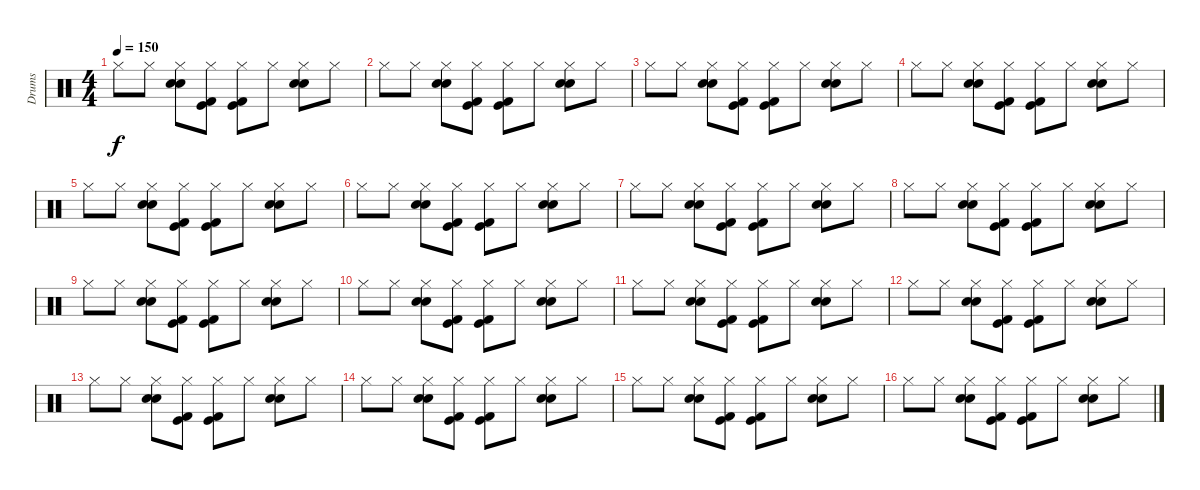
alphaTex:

\track ("Drums" "Drums") {instrument percussion}
\staff {score}
\articulation defaults
\ts (4 4)
\tempo 150
\clef neutral
\ks c "Hi-Hat (closed)".8{dy f} "Hi-Hat (closed)".8
("Hi-Hat (closed)" "Snare (hit) 2" "Electric Snare (hit)").8 ("Hi-Hat (closed)" "Kick (hit) 2" "Kick (hit)").8 ("Hi-Hat (closed)" "Kick (hit) 2" "Kick (hit)").8 "Hi-Hat (closed)".8 ("Hi-Hat (closed)" "Snare (hit) 2" "Electric Snare (hit)").8 "Hi-Hat (closed)".8 |
"Hi-Hat (closed)".8 "Hi-Hat (closed)".8 ("Hi-Hat (closed)" "Snare (hit) 2" "Electric Snare (hit)").8 ("Hi-Hat (closed)" "Kick (hit) 2" "Kick (hit)").8 ("Hi-Hat (closed)" "Kick (hit) 2" "Kick (hit)").8 "Hi-Hat (closed)".8 ("Hi-Hat (closed)" "Snare (hit) 2" "Electric Snare (hit)").8 "Hi-Hat (closed)".8 |
"Hi-Hat (closed)".8 "Hi-Hat (closed)".8 ("Hi-Hat (closed)" "Snare (hit) 2" "Electric Snare (hit)").8 ("Hi-Hat (closed)" "Kick (hit) 2" "Kick (hit)").8 ("Hi-Hat (closed)" "Kick (hit) 2" "Kick (hit)").8 "Hi-Hat (closed)".8 ("Hi-Hat (closed)" "Snare (hit) 2" "Electric Snare (hit)").8 "Hi-Hat (closed)".8 |
"Hi-Hat (closed)".8 "Hi-Hat (closed)".8 ("Hi-Hat (closed)" "Snare (hit) 2" "Electric Snare (hit)").8 ("Hi-Hat (closed)" "Kick (hit) 2" "Kick (hit)").8 ("Hi-Hat (closed)" "Kick (hit) 2" "Kick (hit)").8 "Hi-Hat (closed)".8 ("Hi-Hat (closed)" "Snare (hit) 2" "Electric Snare (hit)").8 "Hi-Hat (closed)".8 |
"Hi-Hat (closed)".8 "Hi-Hat (closed)".8 ("Hi-Hat (closed)" "Snare (hit) 2" "Electric Snare (hit)").8 ("Hi-Hat (closed)" "Kick (hit) 2" "Kick (hit)").8 ("Hi-Hat (closed)" "Kick (hit) 2" "Kick (hit)").8 "Hi-Hat (closed)".8 ("Hi-Hat (closed)" "Snare (hit) 2" "Electric Snare (hit)").8 "Hi-Hat (closed)".8 |
"Hi-Hat (closed)".8 "Hi-Hat (closed)".8 ("Hi-Hat (closed)" "Snare (hit) 2" "Electric Snare (hit)").8 ("Hi-Hat (closed)" "Kick (hit) 2" "Kick (hit)").8 ("Hi-Hat (closed)" "Kick (hit) 2" "Kick (hit)").8 "Hi-Hat (closed)".8 ("Hi-Hat (closed)" "Snare (hit) 2" "Electric Snare (hit)").8 "Hi-Hat (closed)".8 |
"Hi-Hat (closed)".8 "Hi-Hat (closed)".8 ("Hi-Hat (closed)" "Snare (hit) 2" "Electric Snare (hit)").8 ("Hi-Hat (closed)" "Kick (hit) 2" "Kick (hit)").8 ("Hi-Hat (closed)" "Kick (hit) 2" "Kick (hit)").8 "Hi-Hat (closed)".8 ("Hi-Hat (closed)" "Snare (hit) 2" "Electric Snare (hit)").8 "Hi-Hat (closed)".8 |
"Hi-Hat (closed)".8 "Hi-Hat (closed)".8 ("Hi-Hat (closed)" "Snare (hit) 2" "Electric Snare (hit)").8 ("Hi-Hat (closed)" "Kick (hit) 2" "Kick (hit)").8 ("Hi-Hat (closed)" "Kick (hit) 2" "Kick (hit)").8 "Hi-Hat (closed)".8 ("Hi-Hat (closed)" "Snare (hit) 2" "Electric Snare (hit)").8 "Hi-Hat (closed)".8 |
"Hi-Hat (closed)".8 "Hi-Hat (closed)".8 ("Hi-Hat (closed)" "Snare (hit) 2" "Electric Snare (hit)").8 ("Hi-Hat (closed)" "Kick (hit) 2" "Kick (hit)").8 ("Hi-Hat (closed)" "Kick (hit) 2" "Kick (hit)").8 "Hi-Hat (closed)".8 ("Hi-Hat (closed)" "Snare (hit) 2" "Electric Snare (hit)").8 "Hi-Hat (closed)".8 |
"Hi-Hat (closed)".8 "Hi-Hat (closed)".8 ("Hi-Hat (closed)" "Snare (hit) 2" "Electric Snare (hit)").8 ("Hi-Hat (closed)" "Kick (hit) 2" "Kick (hit)").8 ("Hi-Hat (closed)" "Kick (hit) 2" "Kick (hit)").8 "Hi-Hat (closed)".8 ("Hi-Hat (closed)" "Snare (hit) 2" "Electric Snare (hit)").8 "Hi-Hat (closed)".8 |
"Hi-Hat (closed)".8 "Hi-Hat (closed)".8 ("Hi-Hat (closed)" "Snare (hit) 2" "Electric Snare (hit)").8 ("Hi-Hat (closed)" "Kick (hit) 2" "Kick (hit)").8 ("Hi-Hat (closed)" "Kick (hit) 2" "Kick (hit)").8 "Hi-Hat (closed)".8 ("Hi-Hat (closed)" "Snare (hit) 2" "Electric Snare (hit)").8 "Hi-Hat (closed)".8 |
"Hi-Hat (closed)".8 "Hi-Hat (closed)".8 ("Hi-Hat (closed)" "Snare (hit) 2" "Electric Snare (hit)").8 ("Hi-Hat (closed)" "Kick (hit) 2" "Kick (hit)").8 ("Hi-Hat (closed)" "Kick (hit) 2" "Kick (hit)").8 "Hi-Hat (closed)".8 ("Hi-Hat (closed)" "Snare (hit) 2" "Electric Snare (hit)").8 "Hi-Hat (closed)".8 |
"Hi-Hat (closed)".8 "Hi-Hat (closed)".8 ("Hi-Hat (closed)" "Snare (hit) 2" "Electric Snare (hit)").8 ("Hi-Hat (closed)" "Kick (hit) 2" "Kick (hit)").8 ("Hi-Hat (closed)" "Kick (hit) 2" "Kick (hit)").8 "Hi-Hat (closed)".8 ("Hi-Hat (closed)" "Snare (hit) 2" "Electric Snare (hit)").8 "Hi-Hat (closed)".8 |
"Hi-Hat (closed)".8 "Hi-Hat (closed)".8 ("Hi-Hat (closed)" "Snare (hit) 2" "Electric Snare (hit)").8 ("Hi-Hat (closed)" "Kick (hit) 2" "Kick (hit)").8 ("Hi-Hat (closed)" "Kick (hit) 2" "Kick (hit)").8 "Hi-Hat (closed)".8 ("Hi-Hat (closed)" "Snare (hit) 2" "Electric Snare (hit)").8 "Hi-Hat (closed)".8 |
"Hi-Hat (closed)".8 "Hi-Hat (closed)".8 ("Hi-Hat (closed)" "Snare (hit) 2" "Electric Snare (hit)").8 ("Hi-Hat (closed)" "Kick (hit) 2" "Kick (hit)").8 ("Hi-Hat (closed)" "Kick (hit) 2" "Kick (hit)").8 "Hi-Hat (closed)".8 ("Hi-Hat (closed)" "Snare (hit) 2" "Electric Snare (hit)").8 "Hi-Hat (closed)".8 |
"Hi-Hat (closed)".8 "Hi-Hat (closed)".8 ("Hi-Hat (closed)" "Snare (hit) 2" "Electric Snare (hit)").8 ("Hi-Hat (closed)" "Kick (hit) 2" "Kick (hit)").8 ("Hi-Hat (closed)" "Kick (hit) 2" "Kick (hit)").8 "Hi-Hat (closed)".8 ("Hi-Hat (closed)" "Snare (hit) 2" "Electric Snare (hit)").8 "Hi-Hat (closed)".8
